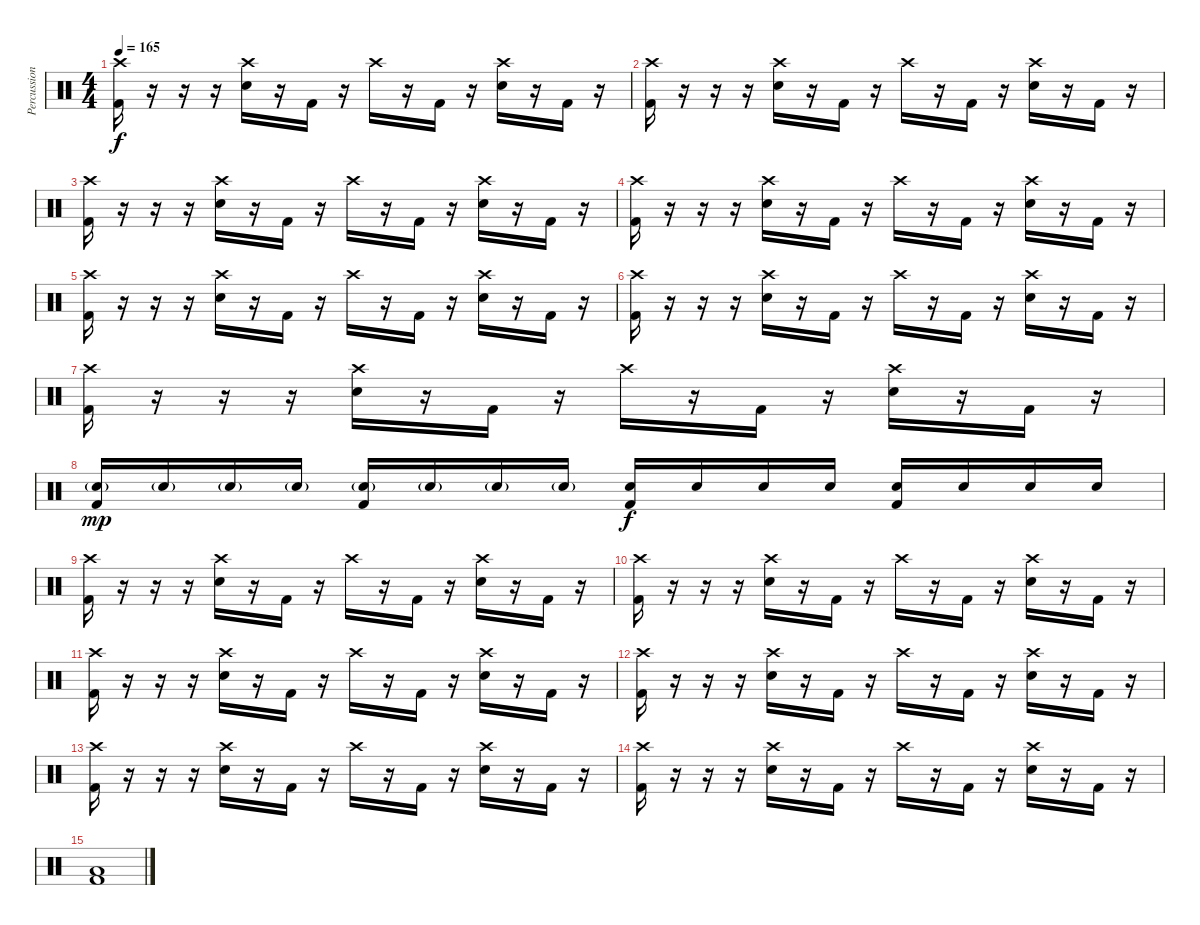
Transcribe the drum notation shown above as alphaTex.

\track ("Percussion" "Percussion") {instrument percussion}
\staff {score}
\articulation defaults
\ts (4 4)
\tempo 165
\clef neutral
\ks c
("Crash high (hit)" "Kick (hit) 2").16{dy f} r.16 r.16 r.16 ("Crash high (hit)" "Snare (hit) 2").16 r.16 "Kick (hit) 2".16 r.16 "Crash high (hit)".16 r.16 "Kick (hit) 2".16 r.16 ("Crash high (hit)" "Snare (hit) 2").16 r.16 "Kick (hit) 2".16 r.16 |
("Crash high (hit)" "Kick (hit) 2").16 r.16 r.16 r.16 ("Crash high (hit)" "Snare (hit) 2").16 r.16 "Kick (hit) 2".16 r.16 "Crash high (hit)".16 r.16 "Kick (hit) 2".16 r.16 ("Crash high (hit)" "Snare (hit) 2").16 r.16 "Kick (hit) 2".16 r.16 |
("Crash high (hit)" "Kick (hit) 2").16 r.16 r.16 r.16 ("Crash high (hit)" "Snare (hit) 2").16 r.16 "Kick (hit) 2".16 r.16 "Crash high (hit)".16 r.16 "Kick (hit) 2".16 r.16 ("Crash high (hit)" "Snare (hit) 2").16 r.16 "Kick (hit) 2".16 r.16 |
("Crash high (hit)" "Kick (hit) 2").16 r.16 r.16 r.16 ("Crash high (hit)" "Snare (hit) 2").16 r.16 "Kick (hit) 2".16 r.16 "Crash high (hit)".16 r.16 "Kick (hit) 2".16 r.16 ("Crash high (hit)" "Snare (hit) 2").16 r.16 "Kick (hit) 2".16 r.16 |
("Crash high (hit)" "Kick (hit) 2").16 r.16 r.16 r.16 ("Crash high (hit)" "Snare (hit) 2").16 r.16 "Kick (hit) 2".16 r.16 "Crash high (hit)".16 r.16 "Kick (hit) 2".16 r.16 ("Crash high (hit)" "Snare (hit) 2").16 r.16 "Kick (hit) 2".16 r.16 |
("Crash high (hit)" "Kick (hit) 2").16 r.16 r.16 r.16 ("Crash high (hit)" "Snare (hit) 2").16 r.16 "Kick (hit) 2".16 r.16 "Crash high (hit)".16 r.16 "Kick (hit) 2".16 r.16 ("Crash high (hit)" "Snare (hit) 2").16 r.16 "Kick (hit) 2".16 r.16 |
("Crash high (hit)" "Kick (hit) 2").16 r.16 r.16 r.16 ("Crash high (hit)" "Snare (hit) 2").16 r.16 "Kick (hit) 2".16 r.16 "Crash high (hit)".16 r.16 "Kick (hit) 2".16 r.16 ("Crash high (hit)" "Snare (hit) 2").16 r.16 "Kick (hit) 2".16 r.16 |
("Snare (hit) 2"{g} "Kick (hit) 2").16{dy mp} "Snare (hit) 2"{g}.16 "Snare (hit) 2"{g}.16 "Snare (hit) 2"{g}.16 ("Snare (hit) 2"{g} "Kick (hit) 2").16 "Snare (hit) 2"{g}.16 "Snare (hit) 2"{g}.16 "Snare (hit) 2"{g}.16 ("Snare (hit) 2" "Kick (hit) 2").16{dy f} "Snare (hit) 2".16 "Snare (hit) 2".16 "Snare (hit) 2".16 ("Snare (hit) 2" "Kick (hit) 2").16 "Snare (hit) 2".16 "Snare (hit) 2".16 "Snare (hit) 2".16 |
("Crash high (hit)" "Kick (hit) 2").16 r.16 r.16 r.16 ("Crash high (hit)" "Snare (hit) 2").16 r.16 "Kick (hit) 2".16 r.16 "Crash high (hit)".16 r.16 "Kick (hit) 2".16 r.16 ("Crash high (hit)" "Snare (hit) 2").16 r.16 "Kick (hit) 2".16 r.16 |
("Crash high (hit)" "Kick (hit) 2").16 r.16 r.16 r.16 ("Crash high (hit)" "Snare (hit) 2").16 r.16 "Kick (hit) 2".16 r.16 "Crash high (hit)".16 r.16 "Kick (hit) 2".16 r.16 ("Crash high (hit)" "Snare (hit) 2").16 r.16 "Kick (hit) 2".16 r.16 |
("Crash high (hit)" "Kick (hit) 2").16 r.16 r.16 r.16 ("Crash high (hit)" "Snare (hit) 2").16 r.16 "Kick (hit) 2".16 r.16 "Crash high (hit)".16 r.16 "Kick (hit) 2".16 r.16 ("Crash high (hit)" "Snare (hit) 2").16 r.16 "Kick (hit) 2".16 r.16 |
("Crash high (hit)" "Kick (hit) 2").16 r.16 r.16 r.16 ("Crash high (hit)" "Snare (hit) 2").16 r.16 "Kick (hit) 2".16 r.16 "Crash high (hit)".16 r.16 "Kick (hit) 2".16 r.16 ("Crash high (hit)" "Snare (hit) 2").16 r.16 "Kick (hit) 2".16 r.16 |
("Crash high (hit)" "Kick (hit) 2").16 r.16 r.16 r.16 ("Crash high (hit)" "Snare (hit) 2").16 r.16 "Kick (hit) 2".16 r.16 "Crash high (hit)".16 r.16 "Kick (hit) 2".16 r.16 ("Crash high (hit)" "Snare (hit) 2").16 r.16 "Kick (hit) 2".16 r.16 |
("Crash high (hit)" "Kick (hit) 2").16 r.16 r.16 r.16 ("Crash high (hit)" "Snare (hit) 2").16 r.16 "Kick (hit) 2".16 r.16 "Crash high (hit)".16 r.16 "Kick (hit) 2".16 r.16 ("Crash high (hit)" "Snare (hit) 2").16 r.16 "Kick (hit) 2".16 r.16 |
("Low Floor Tom (hit)" "Kick (hit) 2").1
